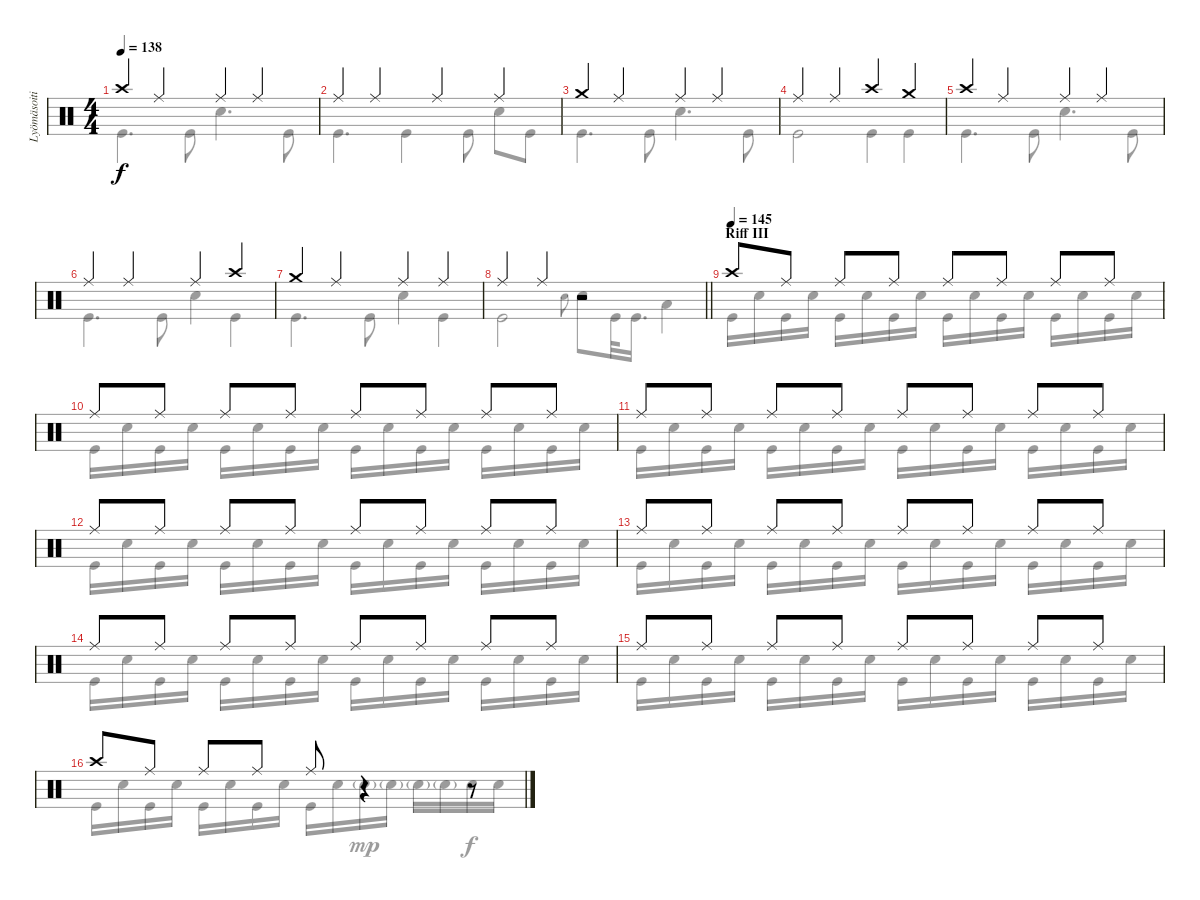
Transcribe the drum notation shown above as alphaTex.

\track ("Lyömäsoitin" "Lyömäsoiti") {instrument percussion}
\staff {score}
\articulation defaults
\voice
\ts (4 4)
\tempo 138
\clef neutral
\ks c "Crash high (hit)".4{dy f} "Ride (middle)".4 "Ride (middle)".4 "Ride (middle)".4
|
"Ride (middle)".4 "Ride (middle)".4 "Ride (middle)".4 "Ride (middle)".4 |
"Crash medium (hit)".4 "Ride (middle)".4 "Ride (middle)".4 "Ride (middle)".4 |
"Ride (middle)".4 "Ride (middle)".4 "Crash high (hit)".4 "Crash medium (hit)".4 |
"Crash high (hit)".4 "Ride (middle)".4 "Ride (middle)".4 "Ride (middle)".4 |
"Ride (middle)".4 "Ride (middle)".4 "Ride (middle)".4 "Crash high (hit)".4 |
"Crash medium (hit)".4 "Ride (middle)".4 "Ride (middle)".4 "Ride (middle)".4 |
\barLineRight lightlight "Ride (middle)".4 "Ride (middle)".4
r.2 |
\section ("" "Riff III")
\tempo (145)
"Crash high (hit)".8 "Ride (middle)".8 "Ride (middle)".8 "Ride (middle)".8 "Ride (middle)".8 "Ride (middle)".8 "Ride (middle)".8 "Ride (middle)".8 |
"Ride (middle)".8 "Ride (middle)".8 "Ride (middle)".8 "Ride (middle)".8 "Ride (middle)".8 "Ride (middle)".8 "Ride (middle)".8 "Ride (middle)".8 |
"Ride (middle)".8 "Ride (middle)".8 "Ride (middle)".8 "Ride (middle)".8 "Ride (middle)".8 "Ride (middle)".8 "Ride (middle)".8 "Ride (middle)".8 |
"Ride (middle)".8 "Ride (middle)".8 "Ride (middle)".8 "Ride (middle)".8 "Ride (middle)".8 "Ride (middle)".8 "Ride (middle)".8 "Ride (middle)".8 |
"Ride (middle)".8 "Ride (middle)".8 "Ride (middle)".8 "Ride (middle)".8 "Ride (middle)".8 "Ride (middle)".8 "Ride (middle)".8 "Ride (middle)".8 |
"Ride (middle)".8 "Ride (middle)".8 "Ride (middle)".8 "Ride (middle)".8 "Ride (middle)".8 "Ride (middle)".8 "Ride (middle)".8 "Ride (middle)".8 |
"Ride (middle)".8 "Ride (middle)".8 "Ride (middle)".8 "Ride (middle)".8 "Ride (middle)".8 "Ride (middle)".8 "Ride (middle)".8 "Ride (middle)".8 |
"Crash high (hit)".8 "Ride (middle)".8 "Ride (middle)".8 "Ride (middle)".8 "Ride (middle)".8 r.4 r.8
\voice
\clef neutral
\ottava regular
\simile none
\ks c "Kick (hit)".4{d dy f} "Kick (hit)".8 "Snare (hit) 2".4{d} "Kick (hit)".8
|
"Kick (hit)".4{d} "Kick (hit)".4 "Kick (hit)".8 "Snare (hit) 2".8 "Kick (hit)".8 |
"Kick (hit)".4{d} "Kick (hit)".8 "Snare (hit) 2".4{d} "Kick (hit)".8 |
"Kick (hit)".2 "Kick (hit)".4 "Kick (hit)".4 |
"Kick (hit)".4{d} "Kick (hit)".8 "Snare (hit) 2".4{d} "Kick (hit)".8 |
"Kick (hit)".4{d} "Kick (hit)".8 "Snare (hit) 2".4 "Kick (hit)".4 |
"Kick (hit)".4{d} "Kick (hit)".8 "Snare (hit) 2".4 "Kick (hit)".4 |
\barLineRight lightlight "Kick (hit)".2 "Snare (hit) 2"{h}.8{gr onbeat} "Snare (hit) 2".8 "Kick (hit)".32 "Kick (hit)".16{d} "Low Tom (hit)".4
|
"Kick (hit)".16 "Snare (hit) 2".16 "Kick (hit)".16 "Snare (hit) 2".16 "Kick (hit)".16 "Snare (hit) 2".16 "Kick (hit)".16 "Snare (hit) 2".16 "Kick (hit)".16 "Snare (hit) 2".16 "Kick (hit)".16 "Snare (hit) 2".16 "Kick (hit)".16 "Snare (hit) 2".16 "Kick (hit)".16 "Snare (hit) 2".16 |
"Kick (hit)".16 "Snare (hit) 2".16 "Kick (hit)".16 "Snare (hit) 2".16 "Kick (hit)".16 "Snare (hit) 2".16 "Kick (hit)".16 "Snare (hit) 2".16 "Kick (hit)".16 "Snare (hit) 2".16 "Kick (hit)".16 "Snare (hit) 2".16 "Kick (hit)".16 "Snare (hit) 2".16 "Kick (hit)".16 "Snare (hit) 2".16 |
"Kick (hit)".16 "Snare (hit) 2".16 "Kick (hit)".16 "Snare (hit) 2".16 "Kick (hit)".16 "Snare (hit) 2".16 "Kick (hit)".16 "Snare (hit) 2".16 "Kick (hit)".16 "Snare (hit) 2".16 "Kick (hit)".16 "Snare (hit) 2".16 "Kick (hit)".16 "Snare (hit) 2".16 "Kick (hit)".16 "Snare (hit) 2".16 |
"Kick (hit)".16 "Snare (hit) 2".16 "Kick (hit)".16 "Snare (hit) 2".16 "Kick (hit)".16 "Snare (hit) 2".16 "Kick (hit)".16 "Snare (hit) 2".16 "Kick (hit)".16 "Snare (hit) 2".16 "Kick (hit)".16 "Snare (hit) 2".16 "Kick (hit)".16 "Snare (hit) 2".16 "Kick (hit)".16 "Snare (hit) 2".16 |
"Kick (hit)".16 "Snare (hit) 2".16 "Kick (hit)".16 "Snare (hit) 2".16 "Kick (hit)".16 "Snare (hit) 2".16 "Kick (hit)".16 "Snare (hit) 2".16 "Kick (hit)".16 "Snare (hit) 2".16 "Kick (hit)".16 "Snare (hit) 2".16 "Kick (hit)".16 "Snare (hit) 2".16 "Kick (hit)".16 "Snare (hit) 2".16 |
"Kick (hit)".16 "Snare (hit) 2".16 "Kick (hit)".16 "Snare (hit) 2".16 "Kick (hit)".16 "Snare (hit) 2".16 "Kick (hit)".16 "Snare (hit) 2".16 "Kick (hit)".16 "Snare (hit) 2".16 "Kick (hit)".16 "Snare (hit) 2".16 "Kick (hit)".16 "Snare (hit) 2".16 "Kick (hit)".16 "Snare (hit) 2".16 |
"Kick (hit)".16 "Snare (hit) 2".16 "Kick (hit)".16 "Snare (hit) 2".16 "Kick (hit)".16 "Snare (hit) 2".16 "Kick (hit)".16 "Snare (hit) 2".16 "Kick (hit)".16 "Snare (hit) 2".16 "Kick (hit)".16 "Snare (hit) 2".16 "Kick (hit)".16 "Snare (hit) 2".16 "Kick (hit)".16 "Snare (hit) 2".16 |
"Kick (hit)".16 "Snare (hit) 2".16 "Kick (hit)".16 "Snare (hit) 2".16 "Kick (hit)".16 "Snare (hit) 2".16 "Kick (hit)".16 "Snare (hit) 2".16 "Kick (hit)".16 "Snare (hit) 2".16 "Snare (hit) 2"{g}.16{dy mp} "Snare (hit) 2"{g}.16 "Snare (hit) 2"{g}.16 "Snare (hit) 2"{g}.16 "Snare (hit) 2".16{dy f} "Snare (hit) 2".16
